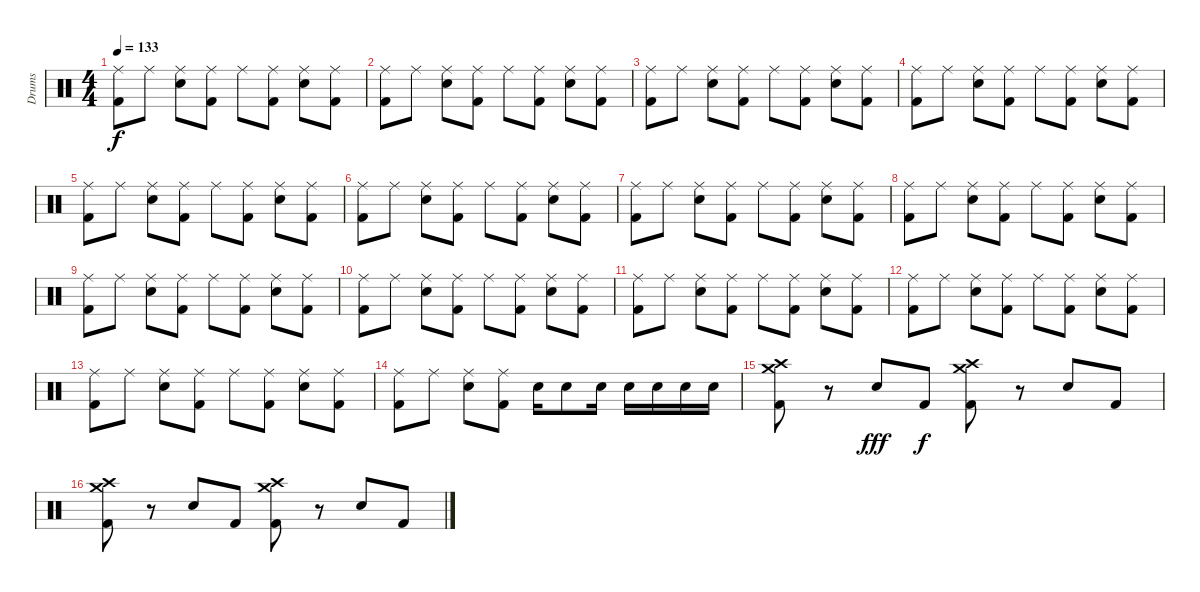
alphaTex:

\track ("Drums" "Drums") {instrument percussion}
\staff {score}
\articulation defaults
\ts (4 4)
\tempo 133
\clef neutral
\ks c
("Ride (middle)" "Kick (hit) 2").8{dy f} "Ride (middle)".8 ("Ride (middle)" "Snare (hit) 2").8 ("Ride (middle)" "Kick (hit) 2").8 "Ride (middle)".8 ("Ride (middle)" "Kick (hit) 2").8 ("Ride (middle)" "Snare (hit) 2").8 ("Ride (middle)" "Kick (hit) 2").8 |
("Ride (middle)" "Kick (hit) 2").8 "Ride (middle)".8 ("Ride (middle)" "Snare (hit) 2").8 ("Ride (middle)" "Kick (hit) 2").8 "Ride (middle)".8 ("Ride (middle)" "Kick (hit) 2").8 ("Ride (middle)" "Snare (hit) 2").8 ("Ride (middle)" "Kick (hit) 2").8 |
("Ride (middle)" "Kick (hit) 2").8 "Ride (middle)".8 ("Ride (middle)" "Snare (hit) 2").8 ("Ride (middle)" "Kick (hit) 2").8 "Ride (middle)".8 ("Ride (middle)" "Kick (hit) 2").8 ("Ride (middle)" "Snare (hit) 2").8 ("Ride (middle)" "Kick (hit) 2").8 |
("Ride (middle)" "Kick (hit) 2").8 "Ride (middle)".8 ("Ride (middle)" "Snare (hit) 2").8 ("Ride (middle)" "Kick (hit) 2").8 "Ride (middle)".8 ("Ride (middle)" "Kick (hit) 2").8 ("Ride (middle)" "Snare (hit) 2").8 ("Ride (middle)" "Kick (hit) 2").8 |
("Ride (middle)" "Kick (hit) 2").8 "Ride (middle)".8 ("Ride (middle)" "Snare (hit) 2").8 ("Ride (middle)" "Kick (hit) 2").8 "Ride (middle)".8 ("Ride (middle)" "Kick (hit) 2").8 ("Ride (middle)" "Snare (hit) 2").8 ("Ride (middle)" "Kick (hit) 2").8 |
("Ride (middle)" "Kick (hit) 2").8 "Ride (middle)".8 ("Ride (middle)" "Snare (hit) 2").8 ("Ride (middle)" "Kick (hit) 2").8 "Ride (middle)".8 ("Ride (middle)" "Kick (hit) 2").8 ("Ride (middle)" "Snare (hit) 2").8 ("Ride (middle)" "Kick (hit) 2").8 |
("Ride (middle)" "Kick (hit) 2").8 "Ride (middle)".8 ("Ride (middle)" "Snare (hit) 2").8 ("Ride (middle)" "Kick (hit) 2").8 "Ride (middle)".8 ("Ride (middle)" "Kick (hit) 2").8 ("Ride (middle)" "Snare (hit) 2").8 ("Ride (middle)" "Kick (hit) 2").8 |
("Ride (middle)" "Kick (hit) 2").8 "Ride (middle)".8 ("Ride (middle)" "Snare (hit) 2").8 ("Ride (middle)" "Kick (hit) 2").8 "Ride (middle)".8 ("Ride (middle)" "Kick (hit) 2").8 ("Ride (middle)" "Snare (hit) 2").8 ("Ride (middle)" "Kick (hit) 2").8 |
("Ride (middle)" "Kick (hit) 2").8 "Ride (middle)".8 ("Ride (middle)" "Snare (hit) 2").8 ("Ride (middle)" "Kick (hit) 2").8 "Ride (middle)".8 ("Ride (middle)" "Kick (hit) 2").8 ("Ride (middle)" "Snare (hit) 2").8 ("Ride (middle)" "Kick (hit) 2").8 |
("Ride (middle)" "Kick (hit) 2").8 "Ride (middle)".8 ("Ride (middle)" "Snare (hit) 2").8 ("Ride (middle)" "Kick (hit) 2").8 "Ride (middle)".8 ("Ride (middle)" "Kick (hit) 2").8 ("Ride (middle)" "Snare (hit) 2").8 ("Ride (middle)" "Kick (hit) 2").8 |
("Ride (middle)" "Kick (hit) 2").8 "Ride (middle)".8 ("Ride (middle)" "Snare (hit) 2").8 ("Ride (middle)" "Kick (hit) 2").8 "Ride (middle)".8 ("Ride (middle)" "Kick (hit) 2").8 ("Ride (middle)" "Snare (hit) 2").8 ("Ride (middle)" "Kick (hit) 2").8 |
("Ride (middle)" "Kick (hit) 2").8 "Ride (middle)".8 ("Ride (middle)" "Snare (hit) 2").8 ("Ride (middle)" "Kick (hit) 2").8 "Ride (middle)".8 ("Ride (middle)" "Kick (hit) 2").8 ("Ride (middle)" "Snare (hit) 2").8 ("Ride (middle)" "Kick (hit) 2").8 |
("Ride (middle)" "Kick (hit) 2").8 "Ride (middle)".8 ("Ride (middle)" "Snare (hit) 2").8 ("Ride (middle)" "Kick (hit) 2").8 "Ride (middle)".8 ("Ride (middle)" "Kick (hit) 2").8 ("Ride (middle)" "Snare (hit) 2").8 ("Ride (middle)" "Kick (hit) 2").8 |
("Ride (middle)" "Kick (hit) 2").8 "Ride (middle)".8 ("Ride (middle)" "Snare (hit) 2").8 ("Ride (middle)" "Kick (hit) 2").8 "Snare (hit) 2".16 "Snare (hit) 2".8 "Snare (hit) 2".16 "Snare (hit) 2".16 "Snare (hit) 2".16 "Snare (hit) 2".16 "Snare (hit) 2".16 |
("Crash high (hit)" "Crash medium (hit)" "Kick (hit) 2").8 r.8 "Snare (hit) 2".8{dy fff} "Kick (hit) 2".8{dy f} ("Crash high (hit)" "Crash medium (hit)" "Kick (hit) 2").8 r.8 "Snare (hit) 2".8 "Kick (hit) 2".8 |
("Crash high (hit)" "Crash medium (hit)" "Kick (hit) 2").8 r.8 "Snare (hit) 2".8 "Kick (hit) 2".8 ("Crash high (hit)" "Crash medium (hit)" "Kick (hit) 2").8 r.8 "Snare (hit) 2".8 "Kick (hit) 2".8
